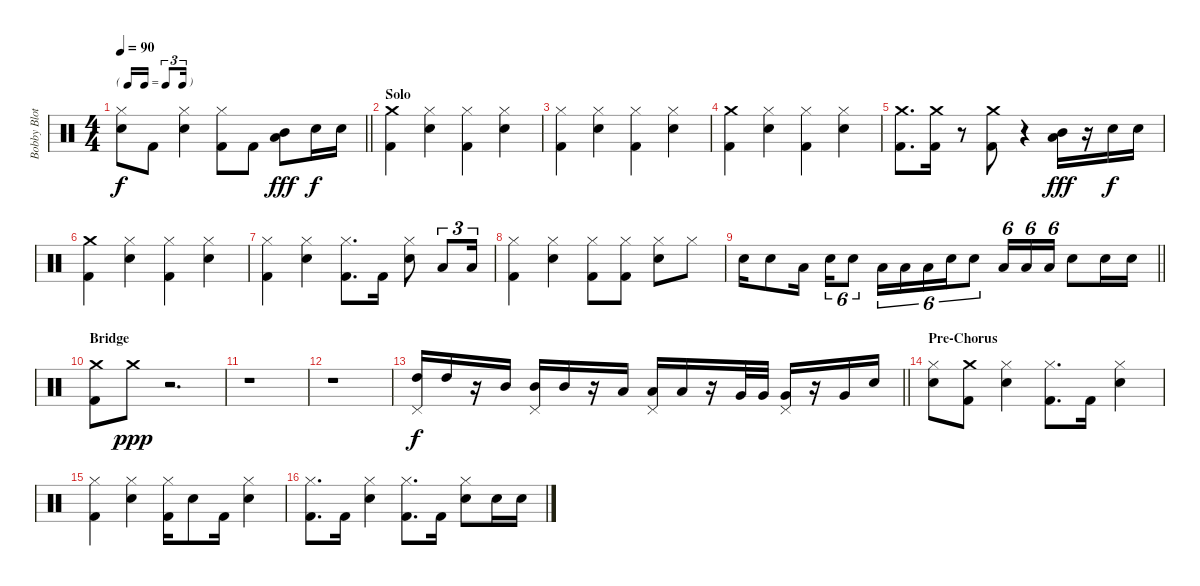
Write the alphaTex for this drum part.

\track ("Bobby Blotzer - Drums" "Bobby Blot") {instrument percussion}
\staff {score}
\articulation defaults
\ts (4 4)
\tf triplet16th
\tempo 90
\clef neutral
\barLineRight lightlight
\ks c
("Hi-Hat (closed)" "Snare (hit) 2").8{dy f} "Kick (hit) 2".8 ("Hi-Hat (closed)" "Snare (hit) 2").4 ("Hi-Hat (closed)" "Kick (hit) 2").8 "Kick (hit) 2".8 ("Mid Tom (hit)" "Low Tom (hit)").8{dy fff} "Snare (hit) 2".16{dy f} "Snare (hit) 2".16 |
\section ("" "Solo")
("Crash medium (hit)" "Kick (hit) 2").4 ("Hi-Hat (closed)" "Snare (hit) 2").4 ("Hi-Hat (closed)" "Kick (hit) 2").4 ("Hi-Hat (closed)" "Snare (hit) 2").4 |
("Hi-Hat (closed)" "Kick (hit) 2").4 ("Hi-Hat (closed)" "Snare (hit) 2").4 ("Hi-Hat (closed)" "Kick (hit) 2").4 ("Hi-Hat (closed)" "Snare (hit) 2").4 |
("Crash medium (hit)" "Kick (hit) 2").4 ("Hi-Hat (closed)" "Snare (hit) 2").4 ("Hi-Hat (closed)" "Kick (hit) 2").4 ("Hi-Hat (closed)" "Snare (hit) 2").4 |
("Crash medium (hit)" "Kick (hit) 2").8{d} ("Crash medium (hit)" "Kick (hit) 2").16 r.8 ("Crash medium (hit)" "Kick (hit) 2").8 r.4 ("Mid Tom (hit)" "Low Tom (hit)").16{dy fff} r.16 "Snare (hit) 2".16{dy f} "Snare (hit) 2".16 |
("Crash medium (hit)" "Kick (hit) 2").4 ("Hi-Hat (closed)" "Snare (hit) 2").4 ("Hi-Hat (closed)" "Kick (hit) 2").4 ("Hi-Hat (closed)" "Snare (hit) 2").4 |
("Hi-Hat (closed)" "Kick (hit) 2").4 ("Hi-Hat (closed)" "Snare (hit) 2").4 ("Hi-Hat (closed)" "Kick (hit) 2").8{d} "Kick (hit) 2".16 ("Hi-Hat (closed)" "Snare (hit) 2").8 "Low Tom (hit)".8{tu (3 2)} "Low Tom (hit)".16{tu (3 2)} |
("Hi-Hat (closed)" "Kick (hit) 2").4 ("Hi-Hat (closed)" "Snare (hit) 2").4 ("Hi-Hat (closed)" "Kick (hit) 2").8 ("Hi-Hat (closed)" "Kick (hit) 2").8 ("Hi-Hat (closed)" "Snare (hit) 2").8 "Hi-Hat (closed)".8 |
\barLineRight lightlight "Snare (hit) 2".16 "Snare (hit) 2".8 "Low Tom (hit)".16 "Snare (hit) 2".16{tu (6 4)} "Snare (hit) 2".8{tu (6 4)} "Low Tom (hit)".16{tu (6 4)} "Low Tom (hit)".16{tu (6 4)} "Low Tom (hit)".16{tu (6 4)} "Snare (hit) 2".16{tu (6 4)} "Snare (hit) 2".8{tu (6 4)} "Low Tom (hit)".16{tu (6 4)} "Low Tom (hit)".16{tu (6 4)} "Low Tom (hit)".16{tu (6 4)} "Snare (hit) 2".8 "Snare (hit) 2".16 "Snare (hit) 2".16
|
\section ("" "Bridge")
("Crash medium (hit)" "Kick (hit) 2").8 "Crash medium (hit)".8{dy ppp} r.2{d} |
r.1 |
r.1 |
\barLineRight lightlight
("Pedal Hi-Hat (hit)" "High Tom (hit)").16{dy f} "High Tom (hit)".16 r.16 "Mid Tom (hit)".16 ("Pedal Hi-Hat (hit)" "Mid Tom (hit)").16 "Mid Tom (hit)".16 r.16 "Low Tom (hit)".16 ("Pedal Hi-Hat (hit)" "Low Tom (hit)").16 "Low Tom (hit)".16 r.16 "Very Low Tom (hit)".32 "Very Low Tom (hit)".32 ("Pedal Hi-Hat (hit)" "Very Low Tom (hit)").16 r.16 "Very Low Tom (hit)".16 "Snare (hit) 2".16 |
\section ("" "Pre-Chorus")
("Hi-Hat (closed)" "Snare (hit) 2").8 ("Crash medium (hit)" "Kick (hit) 2").8 ("Hi-Hat (closed)" "Snare (hit) 2").4 ("Hi-Hat (closed)" "Kick (hit) 2").8{d} "Kick (hit) 2".16 ("Hi-Hat (closed)" "Snare (hit) 2").4 |
("Hi-Hat (closed)" "Kick (hit) 2").4 ("Hi-Hat (closed)" "Snare (hit) 2").4 ("Hi-Hat (closed)" "Kick (hit) 2").16 "Snare (hit) 2".8 "Kick (hit) 2".16 ("Hi-Hat (closed)" "Snare (hit) 2").4 |
("Hi-Hat (closed)" "Kick (hit) 2").8{d} "Kick (hit) 2".16 ("Hi-Hat (closed)" "Snare (hit) 2").4 ("Hi-Hat (closed)" "Kick (hit) 2").8{d} "Kick (hit) 2".16 ("Hi-Hat (closed)" "Snare (hit) 2").8 "Snare (hit) 2".16 "Snare (hit) 2".16
